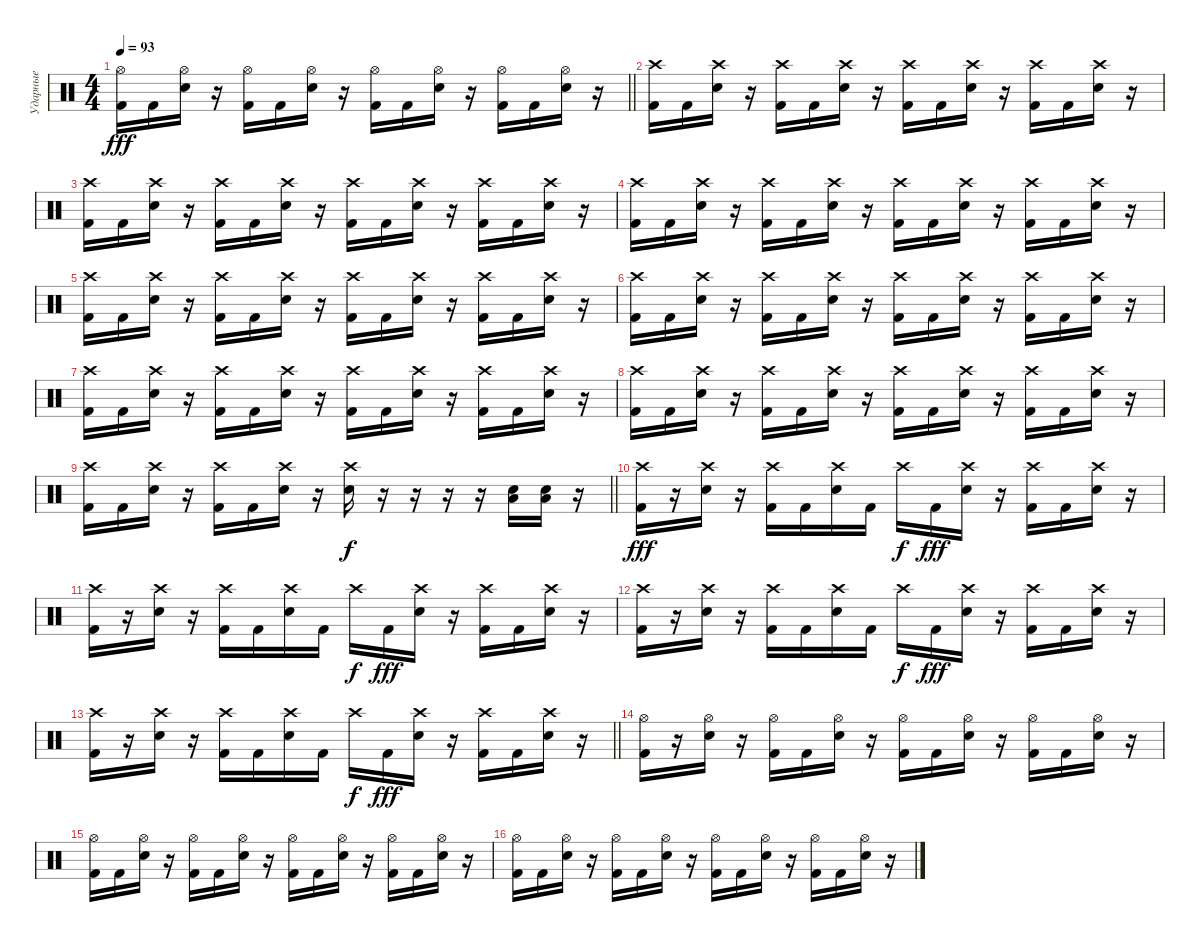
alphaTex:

\track ("Ударные" "Ударные") {instrument percussion}
\staff {score}
\articulation defaults
\ts (4 4)
\tempo 93
\clef neutral
\barLineRight lightlight
\ks c
("Hi-Hat (open)" "Kick (hit) 2").16{dy fff} "Kick (hit) 2".16 ("Hi-Hat (open)" "Electric Snare (hit)").16 r.16 ("Hi-Hat (open)" "Kick (hit) 2").16 "Kick (hit) 2".16 ("Hi-Hat (open)" "Electric Snare (hit)").16 r.16 ("Hi-Hat (open)" "Kick (hit) 2").16 "Kick (hit) 2".16 ("Hi-Hat (open)" "Electric Snare (hit)").16 r.16 ("Hi-Hat (open)" "Kick (hit) 2").16 "Kick (hit) 2".16 ("Hi-Hat (open)" "Electric Snare (hit)").16 r.16 |
\section ("" "")
("Crash high (hit)" "Kick (hit) 2").16 "Kick (hit) 2".16 ("Crash high (hit)" "Electric Snare (hit)").16 r.16 ("Crash high (hit)" "Kick (hit) 2").16 "Kick (hit) 2".16 ("Crash high (hit)" "Electric Snare (hit)").16 r.16 ("Crash high (hit)" "Kick (hit) 2").16 "Kick (hit) 2".16 ("Crash high (hit)" "Electric Snare (hit)").16 r.16 ("Crash high (hit)" "Kick (hit) 2").16 "Kick (hit) 2".16 ("Crash high (hit)" "Electric Snare (hit)").16 r.16 |
("Crash high (hit)" "Kick (hit) 2").16 "Kick (hit) 2".16 ("Crash high (hit)" "Electric Snare (hit)").16 r.16 ("Crash high (hit)" "Kick (hit) 2").16 "Kick (hit) 2".16 ("Crash high (hit)" "Electric Snare (hit)").16 r.16 ("Crash high (hit)" "Kick (hit) 2").16 "Kick (hit) 2".16 ("Crash high (hit)" "Electric Snare (hit)").16 r.16 ("Crash high (hit)" "Kick (hit) 2").16 "Kick (hit) 2".16 ("Crash high (hit)" "Electric Snare (hit)").16 r.16 |
("Crash high (hit)" "Kick (hit) 2").16 "Kick (hit) 2".16 ("Crash high (hit)" "Electric Snare (hit)").16 r.16 ("Crash high (hit)" "Kick (hit) 2").16 "Kick (hit) 2".16 ("Crash high (hit)" "Electric Snare (hit)").16 r.16 ("Crash high (hit)" "Kick (hit) 2").16 "Kick (hit) 2".16 ("Crash high (hit)" "Electric Snare (hit)").16 r.16 ("Crash high (hit)" "Kick (hit) 2").16 "Kick (hit) 2".16 ("Crash high (hit)" "Electric Snare (hit)").16 r.16 |
("Crash high (hit)" "Kick (hit) 2").16 "Kick (hit) 2".16 ("Crash high (hit)" "Electric Snare (hit)").16 r.16 ("Crash high (hit)" "Kick (hit) 2").16 "Kick (hit) 2".16 ("Crash high (hit)" "Electric Snare (hit)").16 r.16 ("Crash high (hit)" "Kick (hit) 2").16 "Kick (hit) 2".16 ("Crash high (hit)" "Electric Snare (hit)").16 r.16 ("Crash high (hit)" "Kick (hit) 2").16 "Kick (hit) 2".16 ("Crash high (hit)" "Electric Snare (hit)").16 r.16 |
("Crash high (hit)" "Kick (hit) 2").16 "Kick (hit) 2".16 ("Crash high (hit)" "Electric Snare (hit)").16 r.16 ("Crash high (hit)" "Kick (hit) 2").16 "Kick (hit) 2".16 ("Crash high (hit)" "Electric Snare (hit)").16 r.16 ("Crash high (hit)" "Kick (hit) 2").16 "Kick (hit) 2".16 ("Crash high (hit)" "Electric Snare (hit)").16 r.16 ("Crash high (hit)" "Kick (hit) 2").16 "Kick (hit) 2".16 ("Crash high (hit)" "Electric Snare (hit)").16 r.16 |
("Crash high (hit)" "Kick (hit) 2").16 "Kick (hit) 2".16 ("Crash high (hit)" "Electric Snare (hit)").16 r.16 ("Crash high (hit)" "Kick (hit) 2").16 "Kick (hit) 2".16 ("Crash high (hit)" "Electric Snare (hit)").16 r.16 ("Crash high (hit)" "Kick (hit) 2").16 "Kick (hit) 2".16 ("Crash high (hit)" "Electric Snare (hit)").16 r.16 ("Crash high (hit)" "Kick (hit) 2").16 "Kick (hit) 2".16 ("Crash high (hit)" "Electric Snare (hit)").16 r.16 |
("Crash high (hit)" "Kick (hit) 2").16 "Kick (hit) 2".16 ("Crash high (hit)" "Electric Snare (hit)").16 r.16 ("Crash high (hit)" "Kick (hit) 2").16 "Kick (hit) 2".16 ("Crash high (hit)" "Electric Snare (hit)").16 r.16 ("Crash high (hit)" "Kick (hit) 2").16 "Kick (hit) 2".16 ("Crash high (hit)" "Electric Snare (hit)").16 r.16 ("Crash high (hit)" "Kick (hit) 2").16 "Kick (hit) 2".16 ("Crash high (hit)" "Electric Snare (hit)").16 r.16 |
\barLineRight lightlight
("Crash high (hit)" "Kick (hit) 2").16 "Kick (hit) 2".16 ("Crash high (hit)" "Electric Snare (hit)").16 r.16 ("Crash high (hit)" "Kick (hit) 2").16 "Kick (hit) 2".16 ("Crash high (hit)" "Electric Snare (hit)").16 r.16 ("Crash high (hit)" "Electric Snare (hit)").16{dy f} r.16 r.16 r.16 r.16 ("Electric Snare (hit)" "Low Tom (hit)").16 ("Electric Snare (hit)" "Low Tom (hit)").16 r.16 |
\section ("" "")
("Crash high (hit)" "Kick (hit) 2").16{dy fff} r.16 ("Crash high (hit)" "Electric Snare (hit)").16 r.16 ("Crash high (hit)" "Kick (hit) 2").16 "Kick (hit) 2".16 ("Crash high (hit)" "Electric Snare (hit)").16 "Kick (hit) 2".16 "Crash high (hit)".16{dy f} "Kick (hit) 2".16{dy fff} ("Crash high (hit)" "Electric Snare (hit)").16 r.16 ("Crash high (hit)" "Kick (hit) 2").16 "Kick (hit) 2".16 ("Crash high (hit)" "Electric Snare (hit)").16 r.16 |
("Crash high (hit)" "Kick (hit) 2").16 r.16 ("Crash high (hit)" "Electric Snare (hit)").16 r.16 ("Crash high (hit)" "Kick (hit) 2").16 "Kick (hit) 2".16 ("Crash high (hit)" "Electric Snare (hit)").16 "Kick (hit) 2".16 "Crash high (hit)".16{dy f} "Kick (hit) 2".16{dy fff} ("Crash high (hit)" "Electric Snare (hit)").16 r.16 ("Crash high (hit)" "Kick (hit) 2").16 "Kick (hit) 2".16 ("Crash high (hit)" "Electric Snare (hit)").16 r.16 |
("Crash high (hit)" "Kick (hit) 2").16 r.16 ("Crash high (hit)" "Electric Snare (hit)").16 r.16 ("Crash high (hit)" "Kick (hit) 2").16 "Kick (hit) 2".16 ("Crash high (hit)" "Electric Snare (hit)").16 "Kick (hit) 2".16 "Crash high (hit)".16{dy f} "Kick (hit) 2".16{dy fff} ("Crash high (hit)" "Electric Snare (hit)").16 r.16 ("Crash high (hit)" "Kick (hit) 2").16 "Kick (hit) 2".16 ("Crash high (hit)" "Electric Snare (hit)").16 r.16 |
\barLineRight lightlight
("Crash high (hit)" "Kick (hit) 2").16 r.16 ("Crash high (hit)" "Electric Snare (hit)").16 r.16 ("Crash high (hit)" "Kick (hit) 2").16 "Kick (hit) 2".16 ("Crash high (hit)" "Electric Snare (hit)").16 "Kick (hit) 2".16 "Crash high (hit)".16{dy f} "Kick (hit) 2".16{dy fff} ("Crash high (hit)" "Electric Snare (hit)").16 r.16 ("Crash high (hit)" "Kick (hit) 2").16 "Kick (hit) 2".16 ("Crash high (hit)" "Electric Snare (hit)").16 r.16 |
\section ("" "")
("Hi-Hat (open)" "Kick (hit) 2").16 r.16 ("Hi-Hat (open)" "Electric Snare (hit)").16 r.16 ("Hi-Hat (open)" "Kick (hit) 2").16 "Kick (hit) 2".16 ("Hi-Hat (open)" "Electric Snare (hit)").16 r.16 ("Hi-Hat (open)" "Kick (hit) 2").16 "Kick (hit) 2".16 ("Hi-Hat (open)" "Electric Snare (hit)").16 r.16 ("Hi-Hat (open)" "Kick (hit) 2").16 "Kick (hit) 2".16 ("Hi-Hat (open)" "Electric Snare (hit)").16 r.16 |
("Hi-Hat (open)" "Kick (hit) 2").16 "Kick (hit) 2".16 ("Hi-Hat (open)" "Electric Snare (hit)").16 r.16 ("Hi-Hat (open)" "Kick (hit) 2").16 "Kick (hit) 2".16 ("Hi-Hat (open)" "Electric Snare (hit)").16 r.16 ("Hi-Hat (open)" "Kick (hit) 2").16 "Kick (hit) 2".16 ("Hi-Hat (open)" "Electric Snare (hit)").16 r.16 ("Hi-Hat (open)" "Kick (hit) 2").16 "Kick (hit) 2".16 ("Hi-Hat (open)" "Electric Snare (hit)").16 r.16 |
("Hi-Hat (open)" "Kick (hit) 2").16 "Kick (hit) 2".16 ("Hi-Hat (open)" "Electric Snare (hit)").16 r.16 ("Hi-Hat (open)" "Kick (hit) 2").16 "Kick (hit) 2".16 ("Hi-Hat (open)" "Electric Snare (hit)").16 r.16 ("Hi-Hat (open)" "Kick (hit) 2").16 "Kick (hit) 2".16 ("Hi-Hat (open)" "Electric Snare (hit)").16 r.16 ("Hi-Hat (open)" "Kick (hit) 2").16 "Kick (hit) 2".16 ("Hi-Hat (open)" "Electric Snare (hit)").16 r.16
